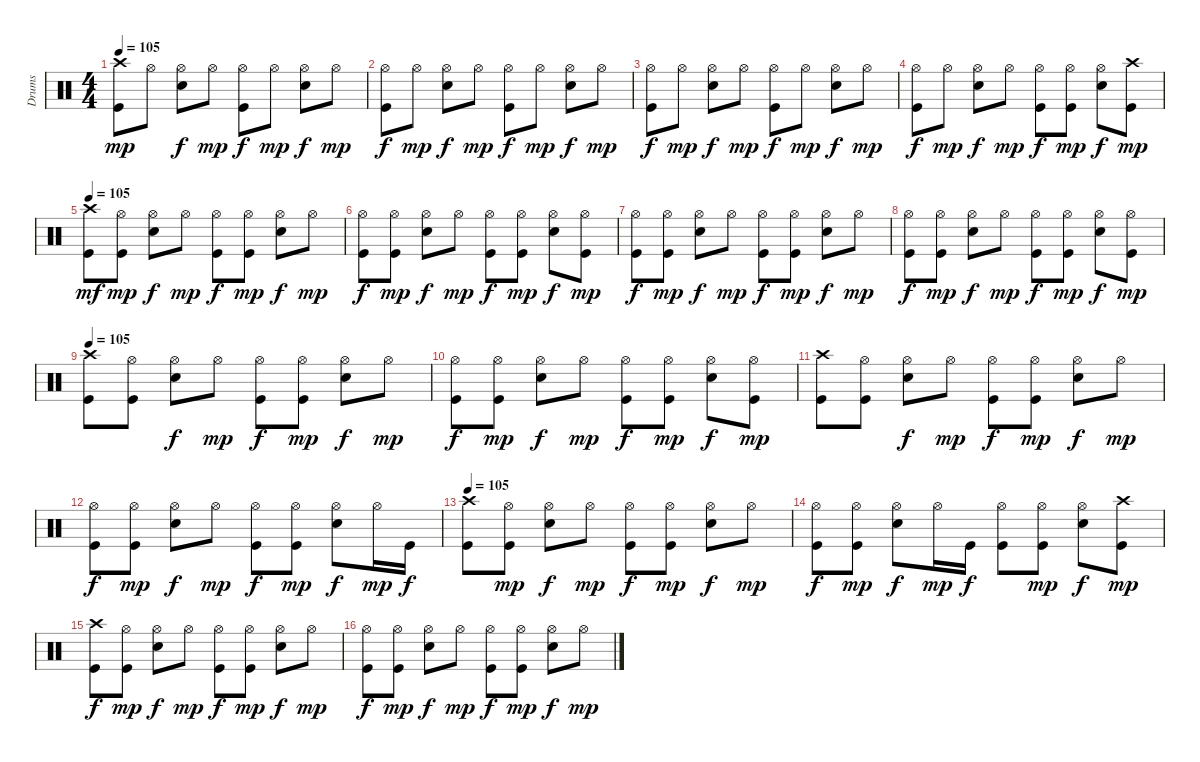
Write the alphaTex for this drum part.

\track ("Drums" "Drums") {instrument percussion}
\staff {score}
\articulation defaults
\ts (4 4)
\tempo 105
\clef neutral
\ks c
("Crash high (hit)" "Kick (hit)").8{dy mp} "Hi-Hat (open)".8 ("Hi-Hat (open)" "Snare (hit) 2").8{dy f} "Hi-Hat (open)".8{dy mp} ("Hi-Hat (open)" "Kick (hit)").8{dy f} "Hi-Hat (open)".8{dy mp} ("Hi-Hat (open)" "Snare (hit) 2").8{dy f} "Hi-Hat (open)".8{dy mp} |
("Hi-Hat (open)" "Kick (hit)").8{dy f} "Hi-Hat (open)".8{dy mp} ("Hi-Hat (open)" "Snare (hit) 2").8{dy f} "Hi-Hat (open)".8{dy mp} ("Hi-Hat (open)" "Kick (hit)").8{dy f} "Hi-Hat (open)".8{dy mp} ("Hi-Hat (open)" "Snare (hit) 2").8{dy f} "Hi-Hat (open)".8{dy mp} |
("Hi-Hat (open)" "Kick (hit)").8{dy f} "Hi-Hat (open)".8{dy mp} ("Hi-Hat (open)" "Snare (hit) 2").8{dy f} "Hi-Hat (open)".8{dy mp} ("Hi-Hat (open)" "Kick (hit)").8{dy f} "Hi-Hat (open)".8{dy mp} ("Hi-Hat (open)" "Snare (hit) 2").8{dy f} "Hi-Hat (open)".8{dy mp} |
("Hi-Hat (open)" "Kick (hit)").8{dy f} "Hi-Hat (open)".8{dy mp} ("Hi-Hat (open)" "Snare (hit) 2").8{dy f} "Hi-Hat (open)".8{dy mp} ("Hi-Hat (open)" "Kick (hit)").8{dy f} ("Hi-Hat (open)" "Kick (hit)").8{dy mp} ("Hi-Hat (open)" "Snare (hit) 2").8{dy f} ("Crash high (hit)" "Kick (hit)").8{dy mp} |
\tempo 105
("Crash high (hit)" "Kick (hit)").8{dy mf} ("Hi-Hat (open)" "Kick (hit)").8{dy mp} ("Hi-Hat (open)" "Snare (hit) 2").8{dy f} "Hi-Hat (open)".8{dy mp} ("Hi-Hat (open)" "Kick (hit)").8{dy f} ("Hi-Hat (open)" "Kick (hit)").8{dy mp} ("Hi-Hat (open)" "Snare (hit) 2").8{dy f} "Hi-Hat (open)".8{dy mp} |
("Hi-Hat (open)" "Kick (hit)").8{dy f} ("Hi-Hat (open)" "Kick (hit)").8{dy mp} ("Hi-Hat (open)" "Snare (hit) 2").8{dy f} "Hi-Hat (open)".8{dy mp} ("Hi-Hat (open)" "Kick (hit)").8{dy f} ("Hi-Hat (open)" "Kick (hit)").8{dy mp} ("Hi-Hat (open)" "Snare (hit) 2").8{dy f} ("Hi-Hat (open)" "Kick (hit)").8{dy mp} |
("Hi-Hat (open)" "Kick (hit)").8{dy f} ("Hi-Hat (open)" "Kick (hit)").8{dy mp} ("Hi-Hat (open)" "Snare (hit) 2").8{dy f} "Hi-Hat (open)".8{dy mp} ("Hi-Hat (open)" "Kick (hit)").8{dy f} ("Hi-Hat (open)" "Kick (hit)").8{dy mp} ("Hi-Hat (open)" "Snare (hit) 2").8{dy f} "Hi-Hat (open)".8{dy mp} |
("Hi-Hat (open)" "Kick (hit)").8{dy f} ("Hi-Hat (open)" "Kick (hit)").8{dy mp} ("Hi-Hat (open)" "Snare (hit) 2").8{dy f} "Hi-Hat (open)".8{dy mp} ("Hi-Hat (open)" "Kick (hit)").8{dy f} ("Hi-Hat (open)" "Kick (hit)").8{dy mp} ("Hi-Hat (open)" "Snare (hit) 2").8{dy f} ("Hi-Hat (open)" "Kick (hit)").8{dy mp} |
\tempo 105
("Crash high (hit)" "Kick (hit)").8 ("Hi-Hat (open)" "Kick (hit)").8 ("Hi-Hat (open)" "Snare (hit) 2").8{dy f} "Hi-Hat (open)".8{dy mp} ("Hi-Hat (open)" "Kick (hit)").8{dy f} ("Hi-Hat (open)" "Kick (hit)").8{dy mp} ("Hi-Hat (open)" "Snare (hit) 2").8{dy f} "Hi-Hat (open)".8{dy mp} |
("Hi-Hat (open)" "Kick (hit)").8{dy f} ("Hi-Hat (open)" "Kick (hit)").8{dy mp} ("Hi-Hat (open)" "Snare (hit) 2").8{dy f} "Hi-Hat (open)".8{dy mp} ("Hi-Hat (open)" "Kick (hit)").8{dy f} ("Hi-Hat (open)" "Kick (hit)").8{dy mp} ("Hi-Hat (open)" "Snare (hit) 2").8{dy f} ("Hi-Hat (open)" "Kick (hit)").8{dy mp} |
("Crash high (hit)" "Kick (hit)").8 ("Hi-Hat (open)" "Kick (hit)").8 ("Hi-Hat (open)" "Snare (hit) 2").8{dy f} "Hi-Hat (open)".8{dy mp} ("Hi-Hat (open)" "Kick (hit)").8{dy f} ("Hi-Hat (open)" "Kick (hit)").8{dy mp} ("Hi-Hat (open)" "Snare (hit) 2").8{dy f} "Hi-Hat (open)".8{dy mp} |
("Hi-Hat (open)" "Kick (hit)").8{dy f} ("Hi-Hat (open)" "Kick (hit)").8{dy mp} ("Hi-Hat (open)" "Snare (hit) 2").8{dy f} "Hi-Hat (open)".8{dy mp} ("Hi-Hat (open)" "Kick (hit)").8{dy f} ("Hi-Hat (open)" "Kick (hit)").8{dy mp} ("Hi-Hat (open)" "Snare (hit) 2").8{dy f} "Hi-Hat (open)".16{dy mp} "Kick (hit)".16{dy f} |
\tempo 105
("Crash high (hit)" "Kick (hit)").8 ("Hi-Hat (open)" "Kick (hit)").8{dy mp} ("Hi-Hat (open)" "Snare (hit) 2").8{dy f} "Hi-Hat (open)".8{dy mp} ("Hi-Hat (open)" "Kick (hit)").8{dy f} ("Hi-Hat (open)" "Kick (hit)").8{dy mp} ("Hi-Hat (open)" "Snare (hit) 2").8{dy f} "Hi-Hat (open)".8{dy mp} |
("Hi-Hat (open)" "Kick (hit)").8{dy f} ("Hi-Hat (open)" "Kick (hit)").8{dy mp} ("Hi-Hat (open)" "Snare (hit) 2").8{dy f} "Hi-Hat (open)".16{dy mp} "Kick (hit)".16{dy f} ("Hi-Hat (open)" "Kick (hit)").8 ("Hi-Hat (open)" "Kick (hit)").8{dy mp} ("Hi-Hat (open)" "Snare (hit) 2").8{dy f} ("Crash high (hit)" "Kick (hit)").8{dy mp} |
("Crash high (hit)" "Kick (hit)").8{dy f} ("Hi-Hat (open)" "Kick (hit)").8{dy mp} ("Hi-Hat (open)" "Snare (hit) 2").8{dy f} "Hi-Hat (open)".8{dy mp} ("Hi-Hat (open)" "Kick (hit)").8{dy f} ("Hi-Hat (open)" "Kick (hit)").8{dy mp} ("Hi-Hat (open)" "Snare (hit) 2").8{dy f} "Hi-Hat (open)".8{dy mp} |
("Hi-Hat (open)" "Kick (hit)").8{dy f} ("Hi-Hat (open)" "Kick (hit)").8{dy mp} ("Hi-Hat (open)" "Snare (hit) 2").8{dy f} "Hi-Hat (open)".8{dy mp} ("Hi-Hat (open)" "Kick (hit)").8{dy f} ("Hi-Hat (open)" "Kick (hit)").8{dy mp} ("Hi-Hat (open)" "Snare (hit) 2").8{dy f} "Hi-Hat (open)".8{dy mp}
